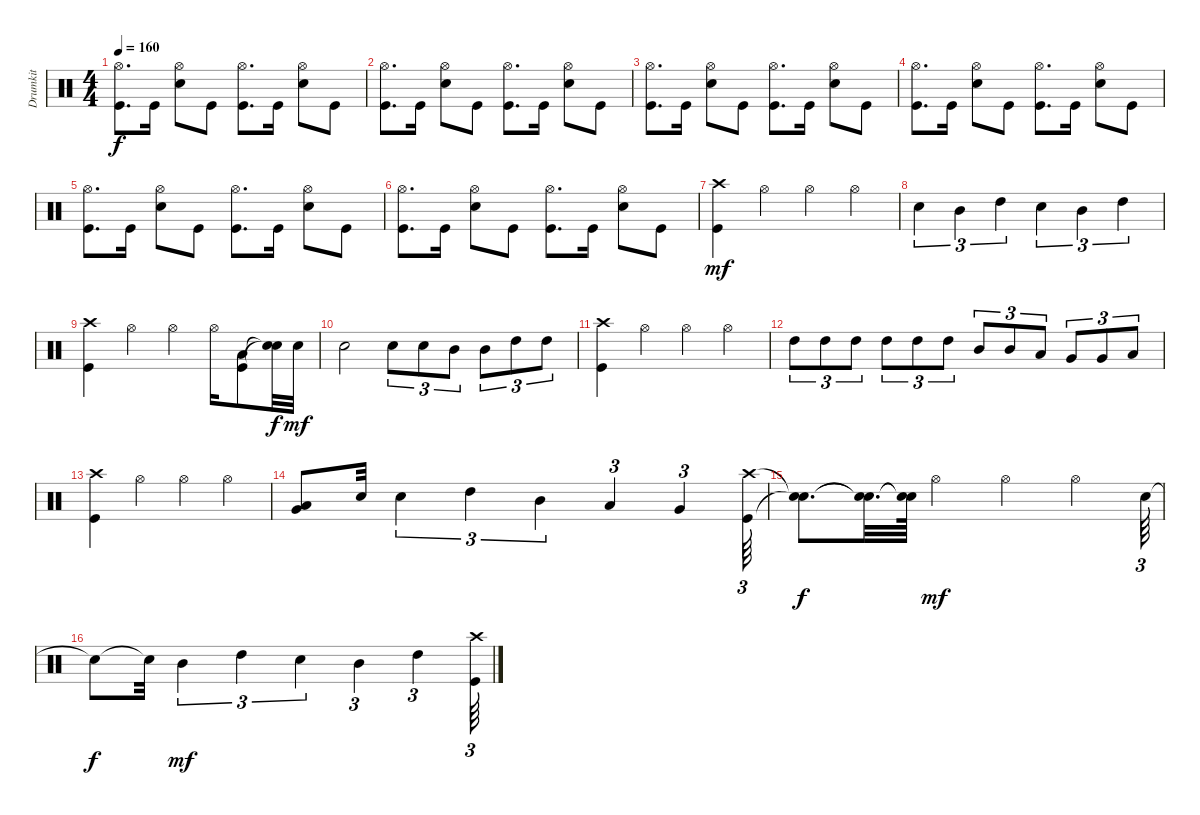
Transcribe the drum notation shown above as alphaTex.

\track ("Drumkit" "Drumkit") {instrument percussion}
\staff {score}
\articulation defaults
\ts (4 4)
\tempo 160
\clef neutral
\ks c
("Kick (hit)" "Hi-Hat (open)").8{d dy f} "Kick (hit)".16 ("Hi-Hat (open)" "Snare (hit) 2").8 "Kick (hit)".8 ("Kick (hit)" "Hi-Hat (open)").8{d} "Kick (hit)".16 ("Hi-Hat (open)" "Snare (hit) 2").8 "Kick (hit)".8 |
("Kick (hit)" "Hi-Hat (open)").8{d} "Kick (hit)".16 ("Hi-Hat (open)" "Snare (hit) 2").8 "Kick (hit)".8 ("Kick (hit)" "Hi-Hat (open)").8{d} "Kick (hit)".16 ("Hi-Hat (open)" "Snare (hit) 2").8 "Kick (hit)".8 |
("Kick (hit)" "Hi-Hat (open)").8{d} "Kick (hit)".16 ("Hi-Hat (open)" "Snare (hit) 2").8 "Kick (hit)".8 ("Kick (hit)" "Hi-Hat (open)").8{d} "Kick (hit)".16 ("Hi-Hat (open)" "Snare (hit) 2").8 "Kick (hit)".8 |
("Kick (hit)" "Hi-Hat (open)").8{d} "Kick (hit)".16 ("Hi-Hat (open)" "Snare (hit) 2").8 "Kick (hit)".8 ("Kick (hit)" "Hi-Hat (open)").8{d} "Kick (hit)".16 ("Hi-Hat (open)" "Snare (hit) 2").8 "Kick (hit)".8 |
("Kick (hit)" "Hi-Hat (open)").8{d} "Kick (hit)".16 ("Hi-Hat (open)" "Snare (hit) 2").8 "Kick (hit)".8 ("Kick (hit)" "Hi-Hat (open)").8{d} "Kick (hit)".16 ("Hi-Hat (open)" "Snare (hit) 2").8 "Kick (hit)".8 |
("Kick (hit)" "Hi-Hat (open)").8{d} "Kick (hit)".16 ("Hi-Hat (open)" "Snare (hit) 2").8 "Kick (hit)".8 ("Kick (hit)" "Hi-Hat (open)").8{d} "Kick (hit)".16 ("Hi-Hat (open)" "Snare (hit) 2").8 "Kick (hit)".8 |
("Kick (hit)" "Crash high (hit)").4{dy mf} "Hi-Hat (open)".4 "Hi-Hat (open)".4 "Hi-Hat (open)".4 |
"Snare (hit) 2".4{tu (3 2)} "Mid Tom (hit)".4{tu (3 2)} "High Tom (hit)".4{tu (3 2)} "Snare (hit) 2".4{tu (3 2)} "Mid Tom (hit)".4{tu (3 2)} "High Tom (hit)".4{tu (3 2)} |
("Kick (hit)" "Crash high (hit)").4 "Hi-Hat (open)".4 "Hi-Hat (open)".4 "Hi-Hat (open)".16 ("Kick (hit)" "Low Floor Tom (hit)").8 ("Snare (hit)"{t} "Snare (hit)"{t}).32{dy f} "Snare (hit) 2".32{dy mf} |
"Snare (hit) 2".2 "Snare (hit) 2".8{tu (3 2)} "Snare (hit) 2".8{tu (3 2)} "Mid Tom (hit)".8{tu (3 2)} "Mid Tom (hit)".8{tu (3 2)} "High Tom (hit)".8{tu (3 2)} "High Tom (hit)".8{tu (3 2)} |
("Kick (hit)" "Crash high (hit)").4 "Hi-Hat (open)".4 "Hi-Hat (open)".4 "Hi-Hat (open)".4 |
"High Tom (hit)".8{tu (3 2)} "High Tom (hit)".8{tu (3 2)} "High Tom (hit)".8{tu (3 2)} "High Tom (hit)".8{tu (3 2)} "High Tom (hit)".8{tu (3 2)} "High Tom (hit)".8{tu (3 2)} "Mid Tom (hit)".8{tu (3 2)} "Mid Tom (hit)".8{tu (3 2)} "Low Tom (hit)".8{tu (3 2)} "Very Low Tom (hit)".8{tu (3 2)} "Very Low Tom (hit)".8{tu (3 2)} "Low Floor Tom (hit)".8{tu (3 2)} |
("Kick (hit)" "Crash high (hit)").4 "Hi-Hat (open)".4 "Hi-Hat (open)".4 "Hi-Hat (open)".4 |
("Low Floor Tom (hit)" "Very Low Tom (hit)").8 "Snare (hit) 2".32 "Snare (hit) 2".4{tu (3 2)} "High Tom (hit)".4{tu (3 2)} "Mid Tom (hit)".4{tu (3 2)} "Low Tom (hit)".4{tu (3 2)} "Very Low Tom (hit)".4{tu (3 2)} ("Kick (hit)" "Crash high (hit)").64{tu (3 2)} |
("Snare (hit)"{t} "Snare (hit)"{t}).8{d dy f} ("Snare (hit)"{t} "Snare (hit)"{t}).32{d} ("Snare (hit)"{t} "Snare (hit)"{t}).64 "Hi-Hat (open)".4{dy mf} "Hi-Hat (open)".4 "Hi-Hat (open)".4 "Snare (hit) 2".64{tu (3 2)} |
"Snare (hit)"{t}.8{dy f} "Snare (hit)"{t}.32 "Mid Tom (hit)".4{tu (3 2) dy mf} "High Tom (hit)".4{tu (3 2)} "Snare (hit) 2".4{tu (3 2)} "Mid Tom (hit)".4{tu (3 2)} "High Tom (hit)".4{tu (3 2)} ("Kick (hit)" "Crash high (hit)").64{tu (3 2)}
